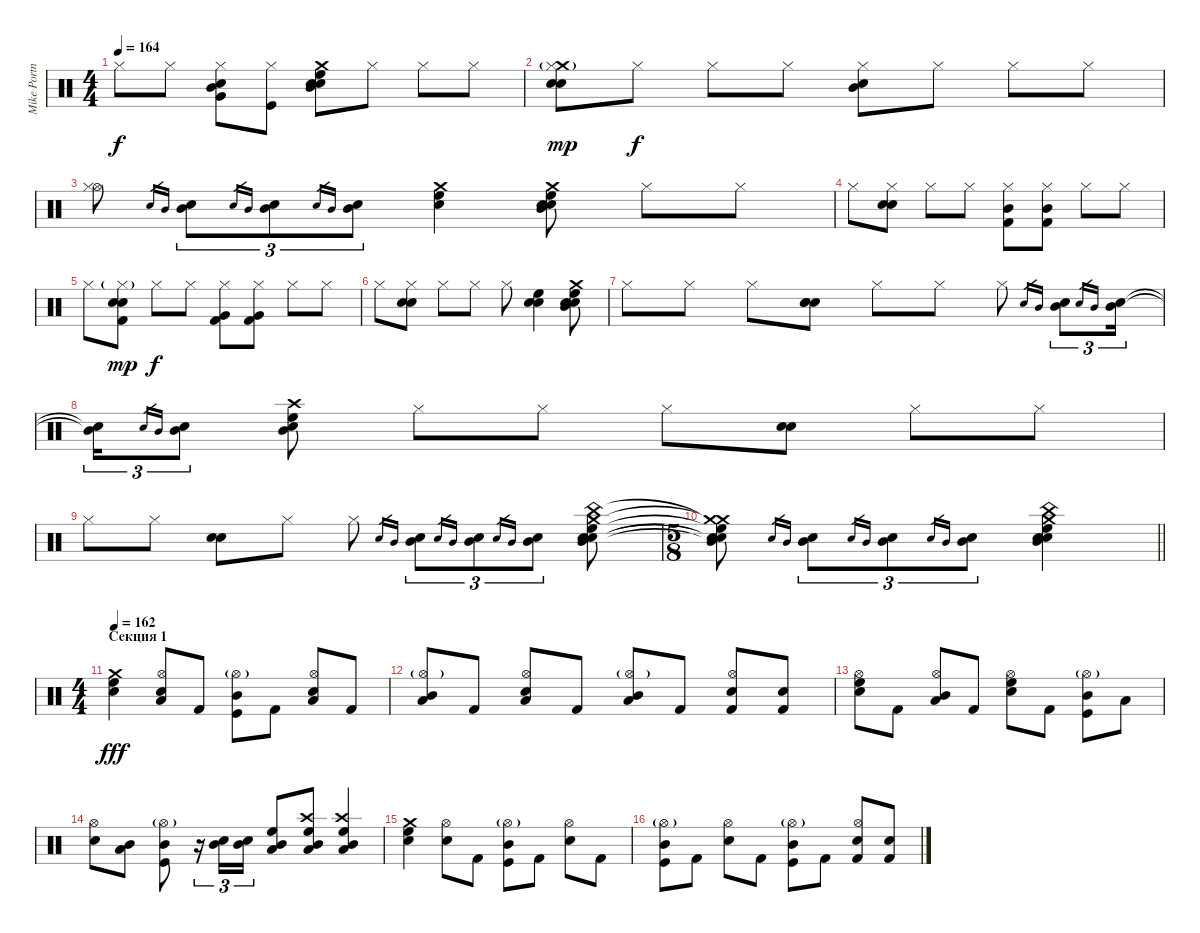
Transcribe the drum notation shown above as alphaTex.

\track ("Mike Portnoy" "Mike Portn") {instrument percussion}
\staff {score}
\articulation defaults
\ts (4 4)
\tempo 164
\clef neutral
\ks c "Hi-Hat (closed)".8{dy f} "Hi-Hat (closed)".8
("Mid Tom (hit)" "Hi-Hat (closed)" "Very Low Tom (hit)" "Electric Snare (hit)").8 ("Hi-Hat (closed)" "Kick (hit)").8 ("Crash medium (hit)" "Electric Snare (hit)" "Electric Snare (hit)" "Mid Tom (hit)" "High Floor Tom (hit)").8 "Hi-Hat (closed)".8 "Hi-Hat (closed)".8 "Hi-Hat (closed)".8 |
("Crash medium (hit)"{g} "Hi-Hat (closed)" "Electric Snare (hit)" "Electric Snare (hit)").8{dy mp} "Hi-Hat (closed)".8{dy f} "Hi-Hat (closed)".8 "Hi-Hat (closed)".8 ("Hi-Hat (closed)" "Electric Snare (hit)" "Mid Tom (hit)").8 "Hi-Hat (closed)".8 "Hi-Hat (closed)".8 "Hi-Hat (closed)".8 |
("Hi-Hat (open)" "Hi-Hat (closed)").8 "Electric Snare (hit)".16{gr} "Mid Tom (hit)".16{gr} ("Electric Snare (hit)" "Mid Tom (hit)").8{tu (3 2)} "Electric Snare (hit)".16{gr} "Mid Tom (hit)".16{gr} ("Electric Snare (hit)" "Mid Tom (hit)").8{tu (3 2)} "Electric Snare (hit)".16{gr} "Mid Tom (hit)".16{gr} ("Electric Snare (hit)" "Mid Tom (hit)").8{tu (3 2)} ("Crash medium (hit)" "Electric Snare (hit)" "High Floor Tom (hit)").4 ("Crash medium (hit)" "Electric Snare (hit)" "Electric Snare (hit)" "Mid Tom (hit)" "High Floor Tom (hit)").8 "Hi-Hat (closed)".8 "Hi-Hat (closed)".8 |
"Hi-Hat (closed)".8 ("Hi-Hat (closed)" "Electric Snare (hit)" "Electric Snare (hit)").8 "Hi-Hat (closed)".8 "Hi-Hat (closed)".8 ("Hi-Hat (closed)" "Mid Tom (hit)" "Kick (hit) 2").8 ("Hi-Hat (closed)" "Mid Tom (hit)" "Kick (hit) 2").8 "Hi-Hat (closed)".8 "Hi-Hat (closed)".8 |
"Hi-Hat (closed)".8 ("Hi-Hat (closed)"{g} "Electric Snare (hit)" "Electric Snare (hit)" "Kick (hit) 2").8{dy mp} "Hi-Hat (closed)".8{dy f} "Hi-Hat (closed)".8 ("Hi-Hat (closed)" "Very Low Tom (hit)" "Kick (hit) 2").8 ("Hi-Hat (closed)" "Very Low Tom (hit)" "Kick (hit) 2").8 "Hi-Hat (closed)".8 "Hi-Hat (closed)".8 |
"Hi-Hat (closed)".8 ("Hi-Hat (closed)" "Electric Snare (hit)" "Snare (hit) 2").8 "Hi-Hat (closed)".8 "Hi-Hat (closed)".8 "Hi-Hat (closed)".8 ("Electric Snare (hit)" "Snare (hit) 2" "High Floor Tom (hit)").4 ("Crash medium (hit)" "Electric Snare (hit)" "Electric Snare (hit)" "Mid Tom (hit)" "High Floor Tom (hit)").8 |
"Hi-Hat (closed)".8 "Hi-Hat (closed)".8 "Hi-Hat (closed)".8 ("Electric Snare (hit)" "Snare (hit) 2" "Electric Snare (hit)").8 "Hi-Hat (closed)".8 "Hi-Hat (closed)".8 "Hi-Hat (closed)".8 "Electric Snare (hit)".16{gr} "Mid Tom (hit)".16{gr} ("Electric Snare (hit)" "Mid Tom (hit)").8{tu (3 2)} "Electric Snare (hit)".16{gr} "Mid Tom (hit)".16{gr} ("Electric Snare (hit)" "Mid Tom (hit)").16{tu (3 2)} |
("Electric Snare (hit)"{t} "Mid Tom (hit)"{t}).16{tu (3 2)} "Electric Snare (hit)".16{gr} "Mid Tom (hit)".16{gr} ("Electric Snare (hit)" "Mid Tom (hit)").8{tu (3 2)} ("Crash high (hit)" "Electric Snare (hit)" "Mid Tom (hit)" "High Floor Tom (hit)").8 "Hi-Hat (closed)".8 "Hi-Hat (closed)".8 "Hi-Hat (closed)".8 ("Electric Snare (hit)" "Snare (hit) 2").8 "Hi-Hat (closed)".8 "Hi-Hat (closed)".8 |
"Hi-Hat (closed)".8 "Hi-Hat (closed)".8 ("Electric Snare (hit)" "Electric Snare (hit)").8 "Hi-Hat (closed)".8 "Hi-Hat (closed)".8 "Electric Snare (hit)".16{gr} "Mid Tom (hit)".16{gr} ("Electric Snare (hit)" "Mid Tom (hit)").8{tu (3 2)} "Electric Snare (hit)".16{gr} "Mid Tom (hit)".16{gr} ("Electric Snare (hit)" "Mid Tom (hit)").8{tu (3 2)} "Electric Snare (hit)".16{gr} "Mid Tom (hit)".16{gr} ("Electric Snare (hit)" "Mid Tom (hit)").8{tu (3 2)} ("Crash medium (hit)" "China (hit)" "Electric Snare (hit)" "Electric Snare (hit)" "Mid Tom (hit)" "High Floor Tom (hit)").8 |
\ts (5 8)
\barLineRight lightlight
("Crash medium (hit)"{t} "Crash medium (hit)"{t} "Electric Snare (hit)"{t} "Electric Snare (hit)"{t} "Mid Tom (hit)"{t} "High Floor Tom (hit)"{t}).8 "Electric Snare (hit)".16{gr} "Mid Tom (hit)".16{gr} ("Electric Snare (hit)" "Mid Tom (hit)").8{tu (3 2)} "Electric Snare (hit)".16{gr} "Mid Tom (hit)".16{gr} ("Electric Snare (hit)" "Mid Tom (hit)").8{tu (3 2)} "Electric Snare (hit)".16{gr} "Mid Tom (hit)".16{gr} ("Electric Snare (hit)" "Mid Tom (hit)").8{tu (3 2)} ("Crash medium (hit)" "China (hit)" "Electric Snare (hit)" "Electric Snare (hit)" "Mid Tom (hit)" "High Floor Tom (hit)").4 |
\ts (4 4)
\section ("" "Секция 1")
\tempo 162
("Crash medium (hit)" "Electric Snare (hit)" "High Floor Tom (hit)").4{dy fff} ("Hi-Hat (open)" "Electric Snare (hit)" "Low Tom (hit)").8 "Kick (hit) 2".8 ("Hi-Hat (open)"{g} "Mid Tom (hit)" "Kick (hit)").8 "Kick (hit) 2".8 ("Hi-Hat (open)" "Electric Snare (hit)" "Low Tom (hit)").8 "Kick (hit) 2".8 |
("Hi-Hat (open)"{g} "Mid Tom (hit)" "Low Tom (hit)").8 "Kick (hit) 2".8 ("Hi-Hat (open)" "Electric Snare (hit)" "Low Tom (hit)").8 "Kick (hit) 2".8 ("Hi-Hat (open)"{g} "Mid Tom (hit)" "Low Tom (hit)").8 "Kick (hit) 2".8 ("Hi-Hat (open)" "Electric Snare (hit)" "Kick (hit) 2").8 ("Electric Snare (hit)" "Kick (hit) 2").8 |
("Hi-Hat (open)" "Electric Snare (hit)" "High Floor Tom (hit)").8 "Kick (hit) 2".8 ("Hi-Hat (open)" "Mid Tom (hit)" "Low Tom (hit)").8 "Kick (hit) 2".8 ("Hi-Hat (open)" "Electric Snare (hit)" "High Floor Tom (hit)").8 "Kick (hit) 2".8 ("Hi-Hat (open)"{g} "Mid Tom (hit)" "Kick (hit)").8 "Low Tom (hit)".8 |
("Hi-Hat (open)" "Electric Snare (hit)").8 ("Mid Tom (hit)" "Low Tom (hit)").8 ("Hi-Hat (open)"{g} "Mid Tom (hit)" "Kick (hit)").8 r.16{tu (3 2)} ("Mid Tom (hit)" "Electric Snare (hit)").16{tu (3 2) bd 60} ("Mid Tom (hit)" "Electric Snare (hit)").16{tu (3 2)} ("Low Tom (hit)" "Mid Tom (hit)" "High Floor Tom (hit)").8 ("Crash high (hit)" "Low Tom (hit)" "Mid Tom (hit)" "High Floor Tom (hit)").8 ("Crash high (hit)" "Low Tom (hit)" "Mid Tom (hit)" "High Floor Tom (hit)").4 |
("Crash medium (hit)" "Electric Snare (hit)" "High Floor Tom (hit)").4 ("Hi-Hat (open)" "Electric Snare (hit)").8 "Kick (hit) 2".8 ("Hi-Hat (open)"{g} "Mid Tom (hit)" "Kick (hit)").8 "Kick (hit) 2".8 ("Hi-Hat (open)" "Electric Snare (hit)").8 "Kick (hit) 2".8 |
("Hi-Hat (open)"{g} "Mid Tom (hit)" "Kick (hit)").8 "Kick (hit) 2".8 ("Hi-Hat (open)" "Electric Snare (hit)").8 "Kick (hit) 2".8 ("Hi-Hat (open)"{g} "Mid Tom (hit)" "Kick (hit)").8 "Kick (hit) 2".8 ("Hi-Hat (open)" "Electric Snare (hit)" "Kick (hit) 2").8 ("Electric Snare (hit)" "Kick (hit) 2").8
